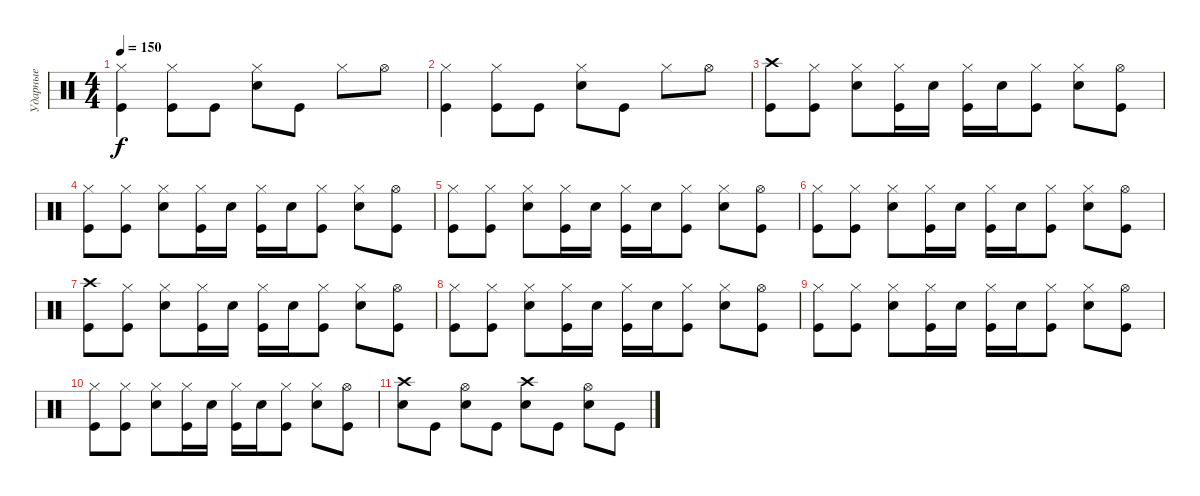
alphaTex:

\track ("Ударные" "Ударные") {instrument percussion}
\staff {score}
\articulation defaults
\ts (4 4)
\tempo 150
\clef neutral
\ks c
("Hi-Hat (closed)" "Kick (hit)").4{dy f} ("Kick (hit)" "Hi-Hat (closed)").8 "Kick (hit)".8 ("Snare (hit) 2" "Hi-Hat (closed)").8 "Kick (hit)".8 "Hi-Hat (closed)".8 "Hi-Hat (open)".8 |
("Hi-Hat (closed)" "Kick (hit)").4 ("Kick (hit)" "Hi-Hat (closed)").8 "Kick (hit)".8 ("Snare (hit) 2" "Hi-Hat (closed)").8 "Kick (hit)".8 "Hi-Hat (closed)".8 "Hi-Hat (open)".8 |
("Kick (hit)" "Crash high (hit)").8 ("Kick (hit)" "Hi-Hat (closed)").8 ("Snare (hit) 2" "Hi-Hat (closed)").8 ("Kick (hit)" "Hi-Hat (closed)").16 "Snare (hit) 2".16 ("Kick (hit)" "Hi-Hat (closed)").16 "Snare (hit) 2".16 ("Kick (hit)" "Hi-Hat (closed)").8 ("Snare (hit) 2" "Hi-Hat (closed)").8 ("Kick (hit)" "Hi-Hat (open)").8 |
("Kick (hit)" "Hi-Hat (closed)").8 ("Kick (hit)" "Hi-Hat (closed)").8 ("Snare (hit) 2" "Hi-Hat (closed)").8 ("Kick (hit)" "Hi-Hat (closed)").16 "Snare (hit) 2".16 ("Kick (hit)" "Hi-Hat (closed)").16 "Snare (hit) 2".16 ("Kick (hit)" "Hi-Hat (closed)").8 ("Snare (hit) 2" "Hi-Hat (closed)").8 ("Kick (hit)" "Hi-Hat (open)").8 |
("Kick (hit)" "Hi-Hat (closed)").8 ("Kick (hit)" "Hi-Hat (closed)").8 ("Snare (hit) 2" "Hi-Hat (closed)").8 ("Kick (hit)" "Hi-Hat (closed)").16 "Snare (hit) 2".16 ("Kick (hit)" "Hi-Hat (closed)").16 "Snare (hit) 2".16 ("Kick (hit)" "Hi-Hat (closed)").8 ("Snare (hit) 2" "Hi-Hat (closed)").8 ("Kick (hit)" "Hi-Hat (open)").8 |
("Kick (hit)" "Hi-Hat (closed)").8 ("Kick (hit)" "Hi-Hat (closed)").8 ("Snare (hit) 2" "Hi-Hat (closed)").8 ("Kick (hit)" "Hi-Hat (closed)").16 "Snare (hit) 2".16 ("Kick (hit)" "Hi-Hat (closed)").16 "Snare (hit) 2".16 ("Kick (hit)" "Hi-Hat (closed)").8 ("Snare (hit) 2" "Hi-Hat (closed)").8 ("Kick (hit)" "Hi-Hat (open)").8 |
("Kick (hit)" "Crash high (hit)").8 ("Kick (hit)" "Hi-Hat (closed)").8 ("Snare (hit) 2" "Hi-Hat (closed)").8 ("Kick (hit)" "Hi-Hat (closed)").16 "Snare (hit) 2".16 ("Kick (hit)" "Hi-Hat (closed)").16 "Snare (hit) 2".16 ("Kick (hit)" "Hi-Hat (closed)").8 ("Snare (hit) 2" "Hi-Hat (closed)").8 ("Kick (hit)" "Hi-Hat (open)").8 |
("Kick (hit)" "Hi-Hat (closed)").8 ("Kick (hit)" "Hi-Hat (closed)").8 ("Snare (hit) 2" "Hi-Hat (closed)").8 ("Kick (hit)" "Hi-Hat (closed)").16 "Snare (hit) 2".16 ("Kick (hit)" "Hi-Hat (closed)").16 "Snare (hit) 2".16 ("Kick (hit)" "Hi-Hat (closed)").8 ("Snare (hit) 2" "Hi-Hat (closed)").8 ("Kick (hit)" "Hi-Hat (open)").8 |
("Kick (hit)" "Hi-Hat (closed)").8 ("Kick (hit)" "Hi-Hat (closed)").8 ("Snare (hit) 2" "Hi-Hat (closed)").8 ("Kick (hit)" "Hi-Hat (closed)").16 "Snare (hit) 2".16 ("Kick (hit)" "Hi-Hat (closed)").16 "Snare (hit) 2".16 ("Kick (hit)" "Hi-Hat (closed)").8 ("Snare (hit) 2" "Hi-Hat (closed)").8 ("Kick (hit)" "Hi-Hat (open)").8 |
("Kick (hit)" "Hi-Hat (closed)").8 ("Kick (hit)" "Hi-Hat (closed)").8 ("Snare (hit) 2" "Hi-Hat (closed)").8 ("Kick (hit)" "Hi-Hat (closed)").16 "Snare (hit) 2".16 ("Kick (hit)" "Hi-Hat (closed)").16 "Snare (hit) 2".16 ("Kick (hit)" "Hi-Hat (closed)").8 ("Snare (hit) 2" "Hi-Hat (closed)").8 ("Kick (hit)" "Hi-Hat (open)").8 |
("Snare (hit) 2" "Crash high (hit)").8 "Kick (hit)".8 ("Snare (hit) 2" "Hi-Hat (open)").8 "Kick (hit)".8 ("Snare (hit) 2" "Crash high (hit)").8 "Kick (hit)".8 ("Snare (hit) 2" "Hi-Hat (open)").8 "Kick (hit)".8
